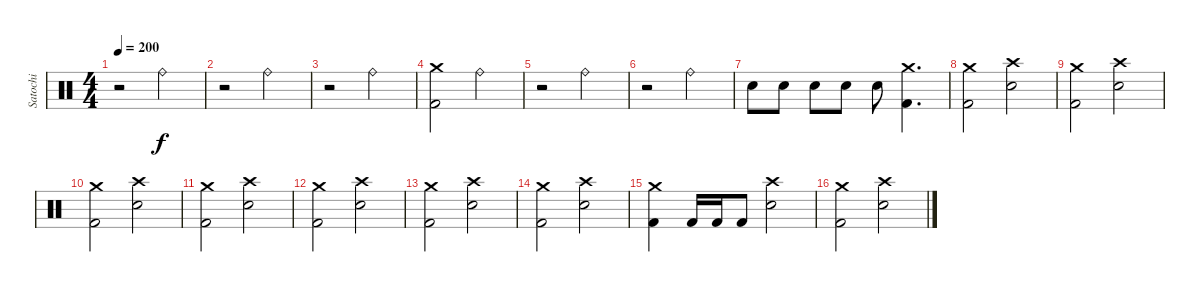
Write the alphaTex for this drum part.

\track ("Satochi" "Satochi") {instrument percussion}
\staff {score}
\articulation defaults
\ts (4 4)
\tempo 200
\clef neutral
\ks c
r.2{dy f} "Ride (bell)".2 |
r.2 "Ride (bell)".2 |
r.2 "Ride (bell)".2 |
("Crash medium (hit)" "Kick (hit) 2").2 "Ride (bell)".2 |
r.2 "Ride (bell)".2 |
r.2 "Ride (bell)".2 |
"Electric Snare (hit)".8 "Electric Snare (hit)".8 "Electric Snare (hit)".8 "Electric Snare (hit)".8 "Electric Snare (hit)".8 ("Crash medium (hit)" "Kick (hit) 2").4{d} |
("Crash medium (hit)" "Kick (hit) 2").2 ("Crash high (hit)" "Electric Snare (hit)").2 |
("Crash medium (hit)" "Kick (hit) 2").2 ("Crash high (hit)" "Electric Snare (hit)").2 |
("Crash medium (hit)" "Kick (hit) 2").2 ("Crash high (hit)" "Electric Snare (hit)").2 |
("Crash medium (hit)" "Kick (hit) 2").2 ("Crash high (hit)" "Electric Snare (hit)").2 |
("Crash medium (hit)" "Kick (hit) 2").2 ("Crash high (hit)" "Electric Snare (hit)").2 |
("Crash medium (hit)" "Kick (hit) 2").2 ("Crash high (hit)" "Electric Snare (hit)").2 |
("Crash medium (hit)" "Kick (hit) 2").2 ("Crash high (hit)" "Electric Snare (hit)").2 |
("Crash medium (hit)" "Kick (hit) 2").4 "Kick (hit) 2".16 "Kick (hit) 2".16 "Kick (hit) 2".8 ("Crash high (hit)" "Electric Snare (hit)").2 |
("Crash medium (hit)" "Kick (hit) 2").2 ("Crash high (hit)" "Electric Snare (hit)").2
